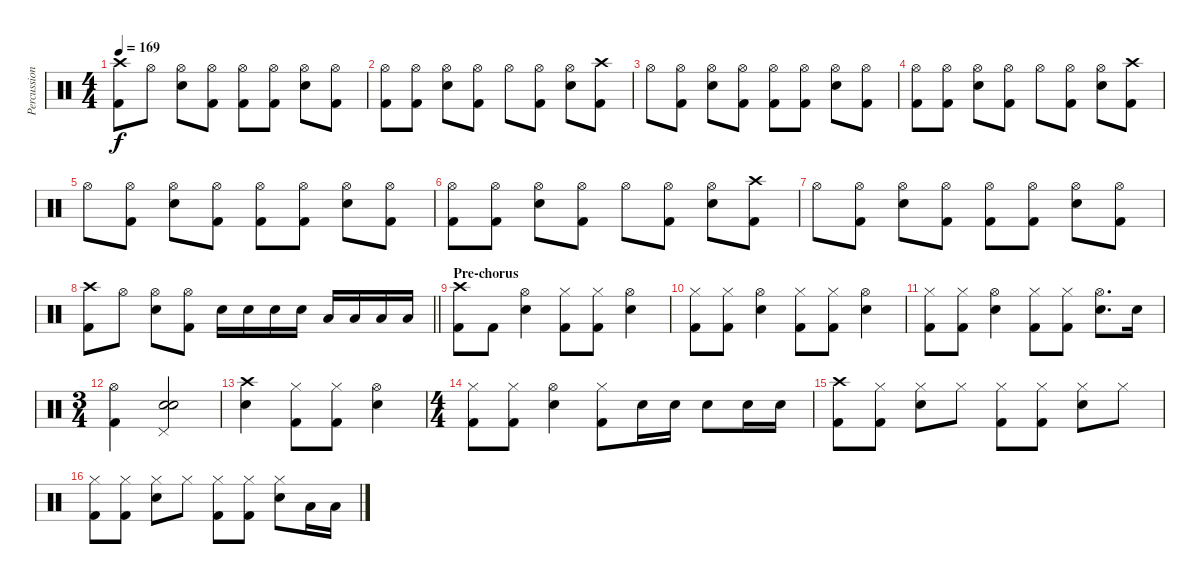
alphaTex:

\track ("Percussion" "Percussion") {instrument percussion}
\staff {score}
\articulation defaults
\ts (4 4)
\tempo 169
\clef neutral
\ks c
("Crash high (hit)" "Kick (hit) 2").8{dy f} "Hi-Hat (open)".8 ("Hi-Hat (open)" "Electric Snare (hit)").8 ("Hi-Hat (open)" "Kick (hit) 2").8 ("Hi-Hat (open)" "Kick (hit) 2").8 ("Hi-Hat (open)" "Kick (hit) 2").8 ("Hi-Hat (open)" "Electric Snare (hit)").8 ("Hi-Hat (open)" "Kick (hit) 2").8 |
("Hi-Hat (open)" "Kick (hit) 2").8 ("Hi-Hat (open)" "Kick (hit) 2").8 ("Hi-Hat (open)" "Electric Snare (hit)").8 ("Hi-Hat (open)" "Kick (hit) 2").8 "Hi-Hat (open)".8 ("Hi-Hat (open)" "Kick (hit) 2").8 ("Hi-Hat (open)" "Electric Snare (hit)").8 ("Crash high (hit)" "Kick (hit) 2").8 |
"Hi-Hat (open)".8 ("Hi-Hat (open)" "Kick (hit) 2").8 ("Hi-Hat (open)" "Electric Snare (hit)").8 ("Hi-Hat (open)" "Kick (hit) 2").8 ("Hi-Hat (open)" "Kick (hit) 2").8 ("Hi-Hat (open)" "Kick (hit) 2").8 ("Hi-Hat (open)" "Electric Snare (hit)").8 ("Hi-Hat (open)" "Kick (hit) 2").8 |
("Hi-Hat (open)" "Kick (hit) 2").8 ("Hi-Hat (open)" "Kick (hit) 2").8 ("Hi-Hat (open)" "Electric Snare (hit)").8 ("Hi-Hat (open)" "Kick (hit) 2").8 "Hi-Hat (open)".8 ("Hi-Hat (open)" "Kick (hit) 2").8 ("Hi-Hat (open)" "Electric Snare (hit)").8 ("Crash high (hit)" "Kick (hit) 2").8 |
"Hi-Hat (open)".8 ("Hi-Hat (open)" "Kick (hit) 2").8 ("Hi-Hat (open)" "Electric Snare (hit)").8 ("Hi-Hat (open)" "Kick (hit) 2").8 ("Hi-Hat (open)" "Kick (hit) 2").8 ("Hi-Hat (open)" "Kick (hit) 2").8 ("Hi-Hat (open)" "Electric Snare (hit)").8 ("Hi-Hat (open)" "Kick (hit) 2").8 |
("Hi-Hat (open)" "Kick (hit) 2").8 ("Hi-Hat (open)" "Kick (hit) 2").8 ("Hi-Hat (open)" "Electric Snare (hit)").8 ("Hi-Hat (open)" "Kick (hit) 2").8 "Hi-Hat (open)".8 ("Hi-Hat (open)" "Kick (hit) 2").8 ("Hi-Hat (open)" "Electric Snare (hit)").8 ("Crash high (hit)" "Kick (hit) 2").8 |
"Hi-Hat (open)".8 ("Hi-Hat (open)" "Kick (hit) 2").8 ("Hi-Hat (open)" "Electric Snare (hit)").8 ("Hi-Hat (open)" "Kick (hit) 2").8 ("Hi-Hat (open)" "Kick (hit) 2").8 ("Hi-Hat (open)" "Kick (hit) 2").8 ("Hi-Hat (open)" "Electric Snare (hit)").8 ("Hi-Hat (open)" "Kick (hit) 2").8 |
\barLineRight lightlight
("Crash high (hit)" "Kick (hit) 2").8 "Hi-Hat (open)".8 ("Hi-Hat (open)" "Electric Snare (hit)").8 ("Hi-Hat (open)" "Kick (hit) 2").8 "Electric Snare (hit)".16 "Electric Snare (hit)".16 "Electric Snare (hit)".16 "Electric Snare (hit)".16 "Low Floor Tom (hit)".16 "Low Floor Tom (hit)".16 "Low Floor Tom (hit)".16 "Low Floor Tom (hit)".16 |
\section ("" "Pre-chorus")
("Crash high (hit)" "Kick (hit) 2").8 "Kick (hit) 2".8 ("Hi-Hat (open)" "Electric Snare (hit)").4 ("Hi-Hat (closed)" "Kick (hit) 2").8 ("Hi-Hat (closed)" "Kick (hit) 2").8 ("Hi-Hat (open)" "Electric Snare (hit)").4 |
("Hi-Hat (closed)" "Kick (hit) 2").8 ("Hi-Hat (closed)" "Kick (hit) 2").8 ("Hi-Hat (open)" "Electric Snare (hit)").4 ("Hi-Hat (closed)" "Kick (hit) 2").8 ("Hi-Hat (closed)" "Kick (hit) 2").8 ("Hi-Hat (open)" "Electric Snare (hit)").4 |
("Hi-Hat (closed)" "Kick (hit) 2").8 ("Hi-Hat (closed)" "Kick (hit) 2").8 ("Hi-Hat (open)" "Electric Snare (hit)").4 ("Hi-Hat (closed)" "Kick (hit) 2").8 ("Hi-Hat (closed)" "Kick (hit) 2").8 ("Hi-Hat (open)" "Electric Snare (hit)").8{d} "Electric Snare (hit)".16 |
\ts (3 4)
("Hi-Hat (open)" "Kick (hit) 2").4 ("Pedal Hi-Hat (hit)" "Electric Snare (hit)" "Electric Snare (hit)").2 |
("Crash high (hit)" "Electric Snare (hit)").4 ("Hi-Hat (closed)" "Kick (hit) 2").8 ("Hi-Hat (closed)" "Kick (hit) 2").8 ("Hi-Hat (open)" "Electric Snare (hit)").4 |
\ts (4 4)
("Hi-Hat (closed)" "Kick (hit) 2").8 ("Hi-Hat (closed)" "Kick (hit) 2").8 ("Hi-Hat (open)" "Electric Snare (hit)").4 ("Hi-Hat (closed)" "Kick (hit) 2").8 "Electric Snare (hit)".16 "Electric Snare (hit)".16 "Electric Snare (hit)".8 "Electric Snare (hit)".16 "Electric Snare (hit)".16 |
("Crash high (hit)" "Kick (hit) 2").8 ("Hi-Hat (closed)" "Kick (hit) 2").8 ("Hi-Hat (closed)" "Electric Snare (hit)").8 "Hi-Hat (closed)".8 ("Hi-Hat (closed)" "Kick (hit) 2").8 ("Hi-Hat (closed)" "Kick (hit) 2").8 ("Hi-Hat (closed)" "Electric Snare (hit)").8 "Hi-Hat (closed)".8 |
("Hi-Hat (closed)" "Kick (hit) 2").8 ("Hi-Hat (closed)" "Kick (hit) 2").8 ("Hi-Hat (closed)" "Electric Snare (hit)").8 "Hi-Hat (closed)".8 ("Hi-Hat (closed)" "Kick (hit) 2").8 ("Hi-Hat (closed)" "Kick (hit) 2").8 ("Hi-Hat (closed)" "Electric Snare (hit)").8 "Low Floor Tom (hit)".16 "Low Floor Tom (hit)".16
